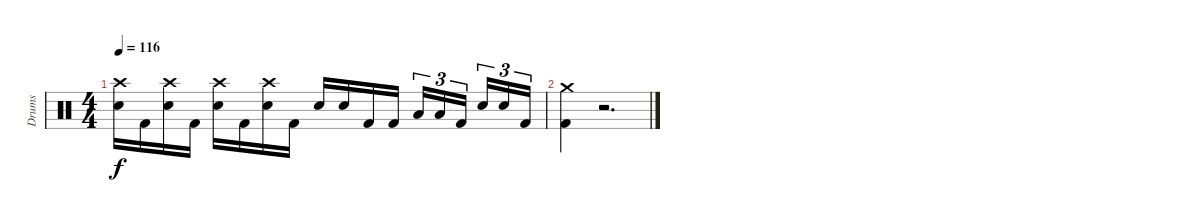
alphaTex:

\track ("Drums" "Drums") {instrument percussion}
\staff {score}
\articulation defaults
\ts (4 4)
\tempo 116
\clef neutral
\ks c
("Crash high (hit)" "Electric Snare (hit)").16{dy f} "Kick (hit) 2".16 ("Crash high (hit)" "Electric Snare (hit)").16 "Kick (hit) 2".16 ("Crash high (hit)" "Electric Snare (hit)").16 "Kick (hit) 2".16 ("Crash high (hit)" "Electric Snare (hit)").16 "Kick (hit) 2".16 "Electric Snare (hit)".16 "Electric Snare (hit)".16 "Kick (hit) 2".16 "Kick (hit) 2".16 "Low Tom (hit)".16{tu (3 2)} "Low Tom (hit)".16{tu (3 2)} "Kick (hit) 2".16{tu (3 2) beam splitsecondary} "Electric Snare (hit)".16{tu (3 2)} "Electric Snare (hit)".16{tu (3 2)} "Kick (hit) 2".16{tu (3 2)} |
("Crash medium (hit)" "Kick (hit) 2").4 r.2{d volume 6}
